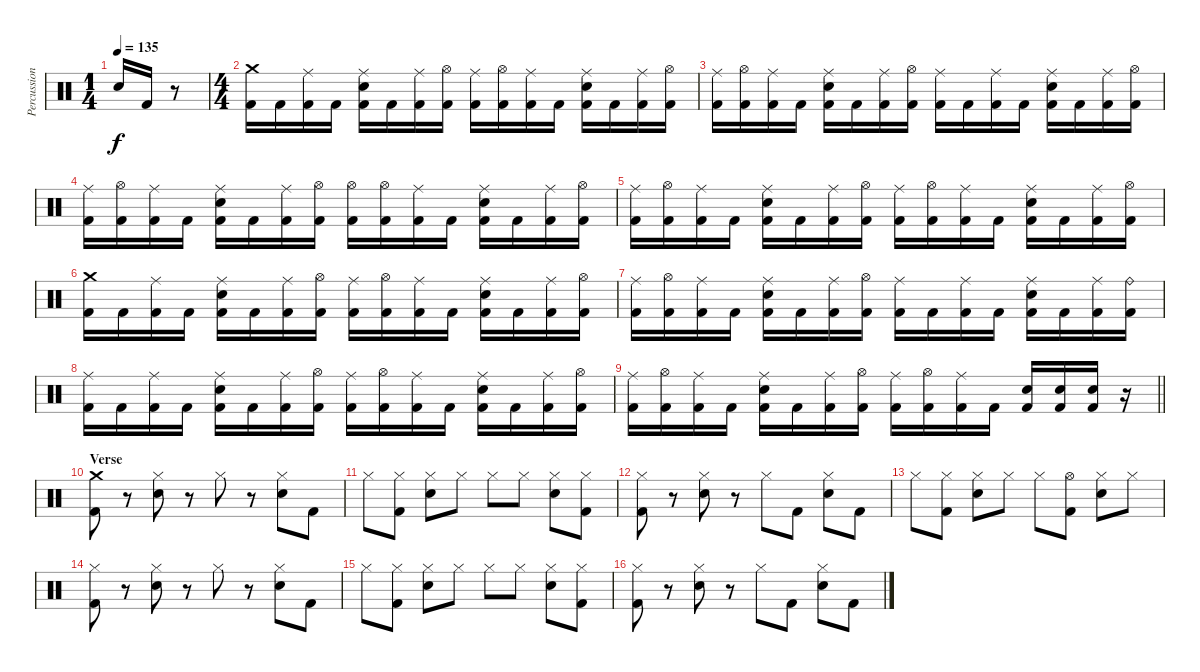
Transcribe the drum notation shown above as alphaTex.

\track ("Percussion" "Percussion") {instrument percussion}
\staff {score}
\articulation defaults
\ts (1 4)
\tempo 135
\clef neutral
\ks c "Electric Snare (hit)".16{dy f} "Kick (hit) 2".16
r.8 |
\ts (4 4)
("Crash medium (hit)" "Kick (hit) 2").16 "Kick (hit) 2".16 ("Ride (middle)" "Kick (hit) 2").16 "Kick (hit) 2".16 ("Ride (middle)" "Electric Snare (hit)" "Kick (hit) 2").16 "Kick (hit) 2".16 ("Ride (middle)" "Kick (hit) 2").16 ("Hi-Hat (open)" "Kick (hit) 2").16 ("Ride (middle)" "Kick (hit) 2").16 ("Hi-Hat (open)" "Kick (hit) 2").16 ("Ride (middle)" "Kick (hit) 2").16 "Kick (hit) 2".16 ("Ride (middle)" "Electric Snare (hit)" "Kick (hit) 2").16 "Kick (hit) 2".16 ("Ride (middle)" "Kick (hit) 2").16 ("Hi-Hat (open)" "Kick (hit) 2").16 |
("Ride (middle)" "Kick (hit) 2").16 ("Hi-Hat (open)" "Kick (hit) 2").16 ("Ride (middle)" "Kick (hit) 2").16 "Kick (hit) 2".16 ("Ride (middle)" "Electric Snare (hit)" "Kick (hit) 2").16 "Kick (hit) 2".16 ("Ride (middle)" "Kick (hit) 2").16 ("Hi-Hat (open)" "Kick (hit) 2").16 ("Ride (middle)" "Kick (hit) 2").16 "Kick (hit) 2".16 ("Ride (middle)" "Kick (hit) 2").16 "Kick (hit) 2".16 ("Ride (middle)" "Electric Snare (hit)" "Kick (hit) 2").16 "Kick (hit) 2".16 ("Ride (middle)" "Kick (hit) 2").16 ("Hi-Hat (open)" "Kick (hit) 2").16 |
("Ride (middle)" "Kick (hit) 2").16 ("Hi-Hat (open)" "Kick (hit) 2").16 ("Ride (middle)" "Kick (hit) 2").16 "Kick (hit) 2".16 ("Ride (middle)" "Electric Snare (hit)" "Kick (hit) 2").16 "Kick (hit) 2".16 ("Ride (middle)" "Kick (hit) 2").16 ("Hi-Hat (open)" "Kick (hit) 2").16 ("Hi-Hat (open)" "Kick (hit) 2").16 ("Hi-Hat (open)" "Kick (hit) 2").16 ("Ride (middle)" "Kick (hit) 2").16 "Kick (hit) 2".16 ("Ride (middle)" "Electric Snare (hit)" "Kick (hit) 2").16 "Kick (hit) 2".16 ("Ride (middle)" "Kick (hit) 2").16 ("Hi-Hat (open)" "Kick (hit) 2").16 |
("Ride (middle)" "Kick (hit) 2").16 ("Hi-Hat (open)" "Kick (hit) 2").16 ("Ride (middle)" "Kick (hit) 2").16 "Kick (hit) 2".16 ("Ride (middle)" "Electric Snare (hit)" "Kick (hit) 2").16 "Kick (hit) 2".16 ("Ride (middle)" "Kick (hit) 2").16 ("Hi-Hat (open)" "Kick (hit) 2").16 ("Ride (middle)" "Kick (hit) 2").16 ("Hi-Hat (open)" "Kick (hit) 2").16 ("Ride (middle)" "Kick (hit) 2").16 "Kick (hit) 2".16 ("Ride (middle)" "Electric Snare (hit)" "Kick (hit) 2").16 "Kick (hit) 2".16 ("Ride (middle)" "Kick (hit) 2").16 ("Hi-Hat (open)" "Kick (hit) 2").16 |
("Crash medium (hit)" "Kick (hit) 2").16 "Kick (hit) 2".16 ("Ride (middle)" "Kick (hit) 2").16 "Kick (hit) 2".16 ("Ride (middle)" "Electric Snare (hit)" "Kick (hit) 2").16 "Kick (hit) 2".16 ("Ride (middle)" "Kick (hit) 2").16 ("Hi-Hat (open)" "Kick (hit) 2").16 ("Ride (middle)" "Kick (hit) 2").16 ("Hi-Hat (open)" "Kick (hit) 2").16 ("Ride (middle)" "Kick (hit) 2").16 "Kick (hit) 2".16 ("Ride (middle)" "Electric Snare (hit)" "Kick (hit) 2").16 "Kick (hit) 2".16 ("Ride (middle)" "Kick (hit) 2").16 ("Hi-Hat (open)" "Kick (hit) 2").16 |
("Ride (middle)" "Kick (hit) 2").16 ("Hi-Hat (open)" "Kick (hit) 2").16 ("Ride (middle)" "Kick (hit) 2").16 "Kick (hit) 2".16 ("Ride (middle)" "Electric Snare (hit)" "Kick (hit) 2").16 "Kick (hit) 2".16 ("Ride (middle)" "Kick (hit) 2").16 ("Hi-Hat (open)" "Kick (hit) 2").16 ("Ride (middle)" "Kick (hit) 2").16 "Kick (hit) 2".16 ("Ride (middle)" "Kick (hit) 2").16 "Kick (hit) 2".16 ("Ride (middle)" "Electric Snare (hit)" "Kick (hit) 2").16 "Kick (hit) 2".16 ("Ride (middle)" "Kick (hit) 2").16 ("Ride (bell)" "Kick (hit) 2").16 |
("Ride (middle)" "Kick (hit) 2").16 "Kick (hit) 2".16 ("Ride (middle)" "Kick (hit) 2").16 "Kick (hit) 2".16 ("Ride (middle)" "Electric Snare (hit)" "Kick (hit) 2").16 "Kick (hit) 2".16 ("Ride (middle)" "Kick (hit) 2").16 ("Hi-Hat (open)" "Kick (hit) 2").16 ("Ride (middle)" "Kick (hit) 2").16 ("Hi-Hat (open)" "Kick (hit) 2").16 ("Ride (middle)" "Kick (hit) 2").16 "Kick (hit) 2".16 ("Ride (middle)" "Electric Snare (hit)" "Kick (hit) 2").16 "Kick (hit) 2".16 ("Ride (middle)" "Kick (hit) 2").16 ("Hi-Hat (open)" "Kick (hit) 2").16 |
\barLineRight lightlight
("Ride (middle)" "Kick (hit) 2").16 ("Hi-Hat (open)" "Kick (hit) 2").16 ("Ride (middle)" "Kick (hit) 2").16 "Kick (hit) 2".16 ("Ride (middle)" "Electric Snare (hit)" "Kick (hit) 2").16 "Kick (hit) 2".16 ("Ride (middle)" "Kick (hit) 2").16 ("Hi-Hat (open)" "Kick (hit) 2").16 ("Ride (middle)" "Kick (hit) 2").16 ("Hi-Hat (open)" "Kick (hit) 2").16 ("Ride (middle)" "Kick (hit) 2").16 "Kick (hit) 2".16 ("Electric Snare (hit)" "Kick (hit) 2").16 ("Electric Snare (hit)" "Kick (hit) 2").16 ("Electric Snare (hit)" "Kick (hit) 2").16 r.16 |
\section ("" "Verse")
("Crash medium (hit)" "Kick (hit) 2").8 r.8 ("Hi-Hat (closed)" "Electric Snare (hit)").8 r.8 "Hi-Hat (closed)".8 r.8 ("Hi-Hat (closed)" "Electric Snare (hit)").8 "Kick (hit) 2".8 |
"Hi-Hat (closed)".8 ("Hi-Hat (closed)" "Kick (hit) 2").8 ("Hi-Hat (closed)" "Electric Snare (hit)").8 "Hi-Hat (closed)".8 "Hi-Hat (closed)".8 "Hi-Hat (closed)".8 ("Hi-Hat (closed)" "Electric Snare (hit)").8 ("Hi-Hat (closed)" "Kick (hit) 2").8 |
("Hi-Hat (closed)" "Kick (hit) 2").8 r.8 ("Hi-Hat (closed)" "Electric Snare (hit)").8 r.8 "Hi-Hat (closed)".8 "Kick (hit) 2".8 ("Hi-Hat (closed)" "Electric Snare (hit)").8 "Kick (hit) 2".8 |
"Hi-Hat (closed)".8 ("Hi-Hat (closed)" "Kick (hit) 2").8 ("Hi-Hat (closed)" "Electric Snare (hit)").8 "Hi-Hat (closed)".8 "Hi-Hat (closed)".8 ("Hi-Hat (open)" "Kick (hit) 2").8 ("Hi-Hat (closed)" "Electric Snare (hit)").8 "Hi-Hat (closed)".8 |
("Hi-Hat (closed)" "Kick (hit) 2").8 r.8 ("Hi-Hat (closed)" "Electric Snare (hit)").8 r.8 "Hi-Hat (closed)".8 r.8 ("Hi-Hat (closed)" "Electric Snare (hit)").8 "Kick (hit) 2".8 |
"Hi-Hat (closed)".8 ("Hi-Hat (closed)" "Kick (hit) 2").8 ("Hi-Hat (closed)" "Electric Snare (hit)").8 "Hi-Hat (closed)".8 "Hi-Hat (closed)".8 "Hi-Hat (closed)".8 ("Hi-Hat (closed)" "Electric Snare (hit)").8 ("Hi-Hat (closed)" "Kick (hit) 2").8 |
("Hi-Hat (closed)" "Kick (hit) 2").8 r.8 ("Hi-Hat (closed)" "Electric Snare (hit)").8 r.8 "Hi-Hat (closed)".8 "Kick (hit) 2".8 ("Hi-Hat (closed)" "Electric Snare (hit)").8 "Kick (hit) 2".8
